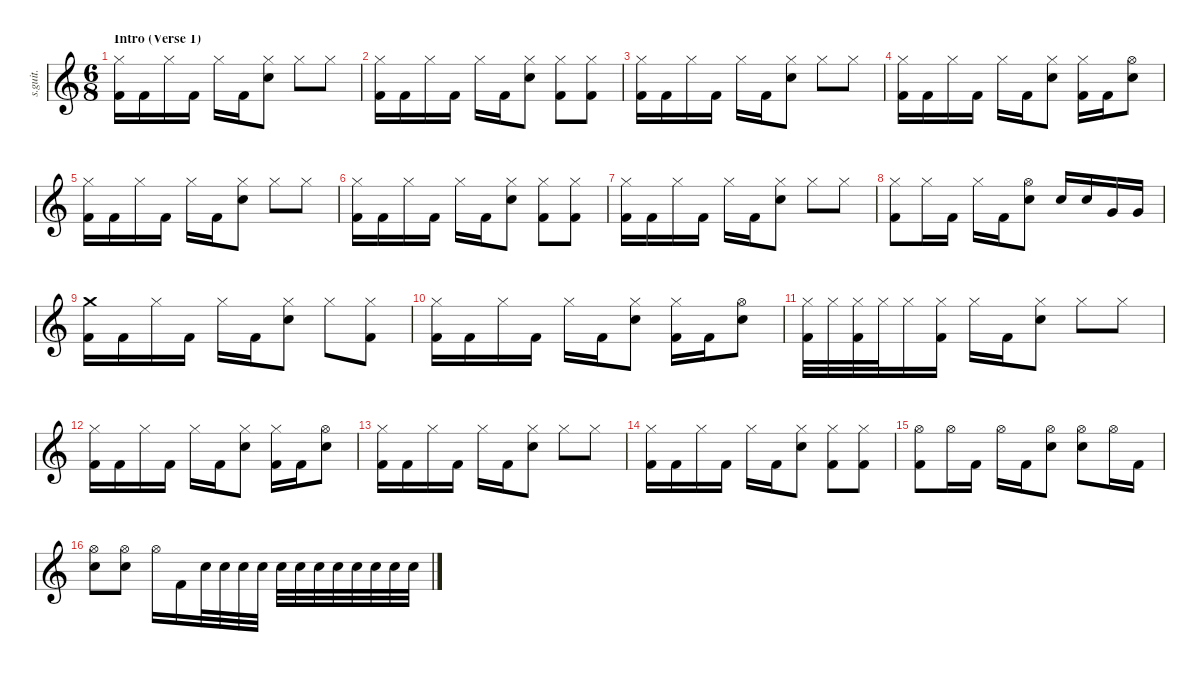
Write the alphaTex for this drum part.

\defaultSystemsLayout 4
\hideDynamics
\bracketExtendMode nobrackets
\track ("Shannon (Drums)" "s.guit.") {instrument percussion}
\staff {score}
\articulation defaults
\ts (6 8)
\beaming (8 2 2 2 2)
\section ("" "Intro (Verse 1)")
\tempo (94 hide)
\clef g2
\ks c
("Hi-Hat (closed)" "Kick (hit) 2").16{lyrics (0 "") lyrics (1 "") lyrics (2 "") lyrics (3 "") lyrics (4 "") dy f} "Kick (hit) 2".16{lyrics (0 "") lyrics (1 "") lyrics (2 "") lyrics (3 "") lyrics (4 "")} "Hi-Hat (closed)".16{lyrics (0 "") lyrics (1 "") lyrics (2 "") lyrics (3 "") lyrics (4 "")} "Kick (hit) 2".16{lyrics (0 "") lyrics (1 "") lyrics (2 "") lyrics (3 "") lyrics (4 "")} "Hi-Hat (closed)".16{lyrics (0 "") lyrics (1 "") lyrics (2 "") lyrics (3 "") lyrics (4 "")} "Kick (hit) 2".16{lyrics (0 "") lyrics (1 "") lyrics (2 "") lyrics (3 "") lyrics (4 "")} ("Hi-Hat (closed)" "Electric Snare (hit)").8{lyrics (0 "") lyrics (1 "") lyrics (2 "") lyrics (3 "") lyrics (4 "")} "Hi-Hat (closed)".8{lyrics (0 "") lyrics (1 "") lyrics (2 "") lyrics (3 "") lyrics (4 "")} "Hi-Hat (closed)".8{lyrics (0 "") lyrics (1 "") lyrics (2 "") lyrics (3 "") lyrics (4 "")} |
("Hi-Hat (closed)" "Kick (hit) 2").16{lyrics (0 "") lyrics (1 "") lyrics (2 "") lyrics (3 "") lyrics (4 "")} "Kick (hit) 2".16{lyrics (0 "") lyrics (1 "") lyrics (2 "") lyrics (3 "") lyrics (4 "")} "Hi-Hat (closed)".16{lyrics (0 "") lyrics (1 "") lyrics (2 "") lyrics (3 "") lyrics (4 "")} "Kick (hit) 2".16{lyrics (0 "") lyrics (1 "") lyrics (2 "") lyrics (3 "") lyrics (4 "")} "Hi-Hat (closed)".16{lyrics (0 "") lyrics (1 "") lyrics (2 "") lyrics (3 "") lyrics (4 "")} "Kick (hit) 2".16{lyrics (0 "") lyrics (1 "") lyrics (2 "") lyrics (3 "") lyrics (4 "")} ("Hi-Hat (closed)" "Electric Snare (hit)").8{lyrics (0 "") lyrics (1 "") lyrics (2 "") lyrics (3 "") lyrics (4 "")} ("Hi-Hat (closed)" "Kick (hit) 2").8{lyrics (0 "") lyrics (1 "") lyrics (2 "") lyrics (3 "") lyrics (4 "")} ("Hi-Hat (closed)" "Kick (hit) 2").8{lyrics (0 "") lyrics (1 "") lyrics (2 "") lyrics (3 "") lyrics (4 "")} |
("Hi-Hat (closed)" "Kick (hit) 2").16{lyrics (0 "") lyrics (1 "") lyrics (2 "") lyrics (3 "") lyrics (4 "")} "Kick (hit) 2".16{lyrics (0 "") lyrics (1 "") lyrics (2 "") lyrics (3 "") lyrics (4 "")} "Hi-Hat (closed)".16{lyrics (0 "") lyrics (1 "") lyrics (2 "") lyrics (3 "") lyrics (4 "")} "Kick (hit) 2".16{lyrics (0 "") lyrics (1 "") lyrics (2 "") lyrics (3 "") lyrics (4 "")} "Hi-Hat (closed)".16{lyrics (0 "") lyrics (1 "") lyrics (2 "") lyrics (3 "") lyrics (4 "")} "Kick (hit) 2".16{lyrics (0 "") lyrics (1 "") lyrics (2 "") lyrics (3 "") lyrics (4 "")} ("Hi-Hat (closed)" "Electric Snare (hit)").8{lyrics (0 "") lyrics (1 "") lyrics (2 "") lyrics (3 "") lyrics (4 "")} "Hi-Hat (closed)".8{lyrics (0 "") lyrics (1 "") lyrics (2 "") lyrics (3 "") lyrics (4 "")} "Hi-Hat (closed)".8{lyrics (0 "") lyrics (1 "") lyrics (2 "") lyrics (3 "") lyrics (4 "")} |
("Hi-Hat (closed)" "Kick (hit) 2").16{lyrics (0 "") lyrics (1 "") lyrics (2 "") lyrics (3 "") lyrics (4 "")} "Kick (hit) 2".16{lyrics (0 "") lyrics (1 "") lyrics (2 "") lyrics (3 "") lyrics (4 "")} "Hi-Hat (closed)".16{lyrics (0 "") lyrics (1 "") lyrics (2 "") lyrics (3 "") lyrics (4 "")} "Kick (hit) 2".16{lyrics (0 "") lyrics (1 "") lyrics (2 "") lyrics (3 "") lyrics (4 "")} "Hi-Hat (closed)".16{lyrics (0 "") lyrics (1 "") lyrics (2 "") lyrics (3 "") lyrics (4 "")} "Kick (hit) 2".16{lyrics (0 "") lyrics (1 "") lyrics (2 "") lyrics (3 "") lyrics (4 "")} ("Hi-Hat (closed)" "Electric Snare (hit)").8{lyrics (0 "") lyrics (1 "") lyrics (2 "") lyrics (3 "") lyrics (4 "")} ("Hi-Hat (closed)" "Kick (hit) 2").16{lyrics (0 "") lyrics (1 "") lyrics (2 "") lyrics (3 "") lyrics (4 "")} "Kick (hit) 2".16{lyrics (0 "") lyrics (1 "") lyrics (2 "") lyrics (3 "") lyrics (4 "")} ("Hi-Hat (open)" "Electric Snare (hit)").8{lyrics (0 "") lyrics (1 "") lyrics (2 "") lyrics (3 "") lyrics (4 "")} |
("Hi-Hat (closed)" "Kick (hit) 2").16{lyrics (0 "") lyrics (1 "") lyrics (2 "") lyrics (3 "") lyrics (4 "")} "Kick (hit) 2".16{lyrics (0 "") lyrics (1 "") lyrics (2 "") lyrics (3 "") lyrics (4 "")} "Hi-Hat (closed)".16{lyrics (0 "") lyrics (1 "") lyrics (2 "") lyrics (3 "") lyrics (4 "")} "Kick (hit) 2".16{lyrics (0 "") lyrics (1 "") lyrics (2 "") lyrics (3 "") lyrics (4 "")} "Hi-Hat (closed)".16{lyrics (0 "") lyrics (1 "") lyrics (2 "") lyrics (3 "") lyrics (4 "")} "Kick (hit) 2".16{lyrics (0 "") lyrics (1 "") lyrics (2 "") lyrics (3 "") lyrics (4 "")} ("Hi-Hat (closed)" "Electric Snare (hit)").8{lyrics (0 "") lyrics (1 "") lyrics (2 "") lyrics (3 "") lyrics (4 "")} "Hi-Hat (closed)".8{lyrics (0 "") lyrics (1 "") lyrics (2 "") lyrics (3 "") lyrics (4 "")} "Hi-Hat (closed)".8{lyrics (0 "") lyrics (1 "") lyrics (2 "") lyrics (3 "") lyrics (4 "")} |
("Hi-Hat (closed)" "Kick (hit) 2").16{lyrics (0 "") lyrics (1 "") lyrics (2 "") lyrics (3 "") lyrics (4 "")} "Kick (hit) 2".16{lyrics (0 "") lyrics (1 "") lyrics (2 "") lyrics (3 "") lyrics (4 "")} "Hi-Hat (closed)".16{lyrics (0 "") lyrics (1 "") lyrics (2 "") lyrics (3 "") lyrics (4 "")} "Kick (hit) 2".16{lyrics (0 "") lyrics (1 "") lyrics (2 "") lyrics (3 "") lyrics (4 "")} "Hi-Hat (closed)".16{lyrics (0 "") lyrics (1 "") lyrics (2 "") lyrics (3 "") lyrics (4 "")} "Kick (hit) 2".16{lyrics (0 "") lyrics (1 "") lyrics (2 "") lyrics (3 "") lyrics (4 "")} ("Hi-Hat (closed)" "Electric Snare (hit)").8{lyrics (0 "") lyrics (1 "") lyrics (2 "") lyrics (3 "") lyrics (4 "")} ("Hi-Hat (closed)" "Kick (hit) 2").8{lyrics (0 "") lyrics (1 "") lyrics (2 "") lyrics (3 "") lyrics (4 "")} ("Hi-Hat (closed)" "Kick (hit) 2").8{lyrics (0 "") lyrics (1 "") lyrics (2 "") lyrics (3 "") lyrics (4 "")} |
("Hi-Hat (closed)" "Kick (hit) 2").16{lyrics (0 "") lyrics (1 "") lyrics (2 "") lyrics (3 "") lyrics (4 "")} "Kick (hit) 2".16{lyrics (0 "") lyrics (1 "") lyrics (2 "") lyrics (3 "") lyrics (4 "")} "Hi-Hat (closed)".16{lyrics (0 "") lyrics (1 "") lyrics (2 "") lyrics (3 "") lyrics (4 "")} "Kick (hit) 2".16{lyrics (0 "") lyrics (1 "") lyrics (2 "") lyrics (3 "") lyrics (4 "")} "Hi-Hat (closed)".16{lyrics (0 "") lyrics (1 "") lyrics (2 "") lyrics (3 "") lyrics (4 "")} "Kick (hit) 2".16{lyrics (0 "") lyrics (1 "") lyrics (2 "") lyrics (3 "") lyrics (4 "")} ("Hi-Hat (closed)" "Electric Snare (hit)").8{lyrics (0 "") lyrics (1 "") lyrics (2 "") lyrics (3 "") lyrics (4 "")} "Hi-Hat (closed)".8{lyrics (0 "") lyrics (1 "") lyrics (2 "") lyrics (3 "") lyrics (4 "")} "Hi-Hat (closed)".8{lyrics (0 "") lyrics (1 "") lyrics (2 "") lyrics (3 "") lyrics (4 "")} |
("Hi-Hat (closed)" "Kick (hit) 2").8{lyrics (0 "") lyrics (1 "") lyrics (2 "") lyrics (3 "") lyrics (4 "")} "Hi-Hat (closed)".16{lyrics (0 "") lyrics (1 "") lyrics (2 "") lyrics (3 "") lyrics (4 "")} "Kick (hit) 2".16{lyrics (0 "") lyrics (1 "") lyrics (2 "") lyrics (3 "") lyrics (4 "")} "Hi-Hat (closed)".16{lyrics (0 "") lyrics (1 "") lyrics (2 "") lyrics (3 "") lyrics (4 "")} "Kick (hit) 2".16{lyrics (0 "") lyrics (1 "") lyrics (2 "") lyrics (3 "") lyrics (4 "")} ("Hi-Hat (open)" "Electric Snare (hit)").8{lyrics (0 "") lyrics (1 "") lyrics (2 "") lyrics (3 "") lyrics (4 "")} "Electric Snare (hit)".16{lyrics (0 "") lyrics (1 "") lyrics (2 "") lyrics (3 "") lyrics (4 "")} "Electric Snare (hit)".16{lyrics (0 "") lyrics (1 "") lyrics (2 "") lyrics (3 "") lyrics (4 "")} "Very Low Tom (hit)".16{lyrics (0 "") lyrics (1 "") lyrics (2 "") lyrics (3 "") lyrics (4 "")} "Very Low Tom (hit)".16{lyrics (0 "") lyrics (1 "") lyrics (2 "") lyrics (3 "") lyrics (4 "")} |
("Crash medium (hit)" "Kick (hit) 2").16{lyrics (0 "") lyrics (1 "") lyrics (2 "") lyrics (3 "") lyrics (4 "")} "Kick (hit) 2".16{lyrics (0 "") lyrics (1 "") lyrics (2 "") lyrics (3 "") lyrics (4 "")} "Hi-Hat (closed)".16{lyrics (0 "") lyrics (1 "") lyrics (2 "") lyrics (3 "") lyrics (4 "")} "Kick (hit) 2".16{lyrics (0 "") lyrics (1 "") lyrics (2 "") lyrics (3 "") lyrics (4 "")} "Hi-Hat (closed)".16{lyrics (0 "") lyrics (1 "") lyrics (2 "") lyrics (3 "") lyrics (4 "")} "Kick (hit) 2".16{lyrics (0 "") lyrics (1 "") lyrics (2 "") lyrics (3 "") lyrics (4 "")} ("Hi-Hat (closed)" "Electric Snare (hit)").8{lyrics (0 "") lyrics (1 "") lyrics (2 "") lyrics (3 "") lyrics (4 "")} "Hi-Hat (closed)".8{lyrics (0 "") lyrics (1 "") lyrics (2 "") lyrics (3 "") lyrics (4 "")} ("Hi-Hat (closed)" "Kick (hit) 2").8{lyrics (0 "") lyrics (1 "") lyrics (2 "") lyrics (3 "") lyrics (4 "")} |
("Hi-Hat (closed)" "Kick (hit) 2").16{lyrics (0 "") lyrics (1 "") lyrics (2 "") lyrics (3 "") lyrics (4 "")} "Kick (hit) 2".16{lyrics (0 "") lyrics (1 "") lyrics (2 "") lyrics (3 "") lyrics (4 "")} "Hi-Hat (closed)".16{lyrics (0 "") lyrics (1 "") lyrics (2 "") lyrics (3 "") lyrics (4 "")} "Kick (hit) 2".16{lyrics (0 "") lyrics (1 "") lyrics (2 "") lyrics (3 "") lyrics (4 "")} "Hi-Hat (closed)".16{lyrics (0 "") lyrics (1 "") lyrics (2 "") lyrics (3 "") lyrics (4 "")} "Kick (hit) 2".16{lyrics (0 "") lyrics (1 "") lyrics (2 "") lyrics (3 "") lyrics (4 "")} ("Hi-Hat (closed)" "Electric Snare (hit)").8{lyrics (0 "") lyrics (1 "") lyrics (2 "") lyrics (3 "") lyrics (4 "")} ("Hi-Hat (closed)" "Kick (hit) 2").16{lyrics (0 "") lyrics (1 "") lyrics (2 "") lyrics (3 "") lyrics (4 "")} "Kick (hit) 2".16{lyrics (0 "") lyrics (1 "") lyrics (2 "") lyrics (3 "") lyrics (4 "")} ("Hi-Hat (open)" "Electric Snare (hit)").8{lyrics (0 "") lyrics (1 "") lyrics (2 "") lyrics (3 "") lyrics (4 "")} |
("Hi-Hat (closed)" "Kick (hit) 2").32{lyrics (0 "") lyrics (1 "") lyrics (2 "") lyrics (3 "") lyrics (4 "")} "Hi-Hat (closed)".32{lyrics (0 "") lyrics (1 "") lyrics (2 "") lyrics (3 "") lyrics (4 "")} ("Hi-Hat (closed)" "Kick (hit) 2").32{lyrics (0 "") lyrics (1 "") lyrics (2 "") lyrics (3 "") lyrics (4 "")} "Hi-Hat (closed)".32{lyrics (0 "") lyrics (1 "") lyrics (2 "") lyrics (3 "") lyrics (4 "")} "Hi-Hat (closed)".16{lyrics (0 "") lyrics (1 "") lyrics (2 "") lyrics (3 "") lyrics (4 "")} ("Hi-Hat (closed)" "Kick (hit) 2").16{lyrics (0 "") lyrics (1 "") lyrics (2 "") lyrics (3 "") lyrics (4 "")} "Hi-Hat (closed)".16{lyrics (0 "") lyrics (1 "") lyrics (2 "") lyrics (3 "") lyrics (4 "")} "Kick (hit) 2".16{lyrics (0 "") lyrics (1 "") lyrics (2 "") lyrics (3 "") lyrics (4 "")} ("Hi-Hat (closed)" "Electric Snare (hit)").8{lyrics (0 "") lyrics (1 "") lyrics (2 "") lyrics (3 "") lyrics (4 "")} "Hi-Hat (closed)".8{lyrics (0 "") lyrics (1 "") lyrics (2 "") lyrics (3 "") lyrics (4 "")} "Hi-Hat (closed)".8{lyrics (0 "") lyrics (1 "") lyrics (2 "") lyrics (3 "") lyrics (4 "")} |
("Hi-Hat (closed)" "Kick (hit) 2").16{lyrics (0 "") lyrics (1 "") lyrics (2 "") lyrics (3 "") lyrics (4 "")} "Kick (hit) 2".16{lyrics (0 "") lyrics (1 "") lyrics (2 "") lyrics (3 "") lyrics (4 "")} "Hi-Hat (closed)".16{lyrics (0 "") lyrics (1 "") lyrics (2 "") lyrics (3 "") lyrics (4 "")} "Kick (hit) 2".16{lyrics (0 "") lyrics (1 "") lyrics (2 "") lyrics (3 "") lyrics (4 "")} "Hi-Hat (closed)".16{lyrics (0 "") lyrics (1 "") lyrics (2 "") lyrics (3 "") lyrics (4 "")} "Kick (hit) 2".16{lyrics (0 "") lyrics (1 "") lyrics (2 "") lyrics (3 "") lyrics (4 "")} ("Hi-Hat (closed)" "Electric Snare (hit)").8{lyrics (0 "") lyrics (1 "") lyrics (2 "") lyrics (3 "") lyrics (4 "")} ("Hi-Hat (closed)" "Kick (hit) 2").16{lyrics (0 "") lyrics (1 "") lyrics (2 "") lyrics (3 "") lyrics (4 "")} "Kick (hit) 2".16{lyrics (0 "") lyrics (1 "") lyrics (2 "") lyrics (3 "") lyrics (4 "")} ("Hi-Hat (open)" "Electric Snare (hit)").8{lyrics (0 "") lyrics (1 "") lyrics (2 "") lyrics (3 "") lyrics (4 "")} |
("Hi-Hat (closed)" "Kick (hit) 2").16{lyrics (0 "") lyrics (1 "") lyrics (2 "") lyrics (3 "") lyrics (4 "")} "Kick (hit) 2".16{lyrics (0 "") lyrics (1 "") lyrics (2 "") lyrics (3 "") lyrics (4 "")} "Hi-Hat (closed)".16{lyrics (0 "") lyrics (1 "") lyrics (2 "") lyrics (3 "") lyrics (4 "")} "Kick (hit) 2".16{lyrics (0 "") lyrics (1 "") lyrics (2 "") lyrics (3 "") lyrics (4 "")} "Hi-Hat (closed)".16{lyrics (0 "") lyrics (1 "") lyrics (2 "") lyrics (3 "") lyrics (4 "")} "Kick (hit) 2".16{lyrics (0 "") lyrics (1 "") lyrics (2 "") lyrics (3 "") lyrics (4 "")} ("Hi-Hat (closed)" "Electric Snare (hit)").8{lyrics (0 "") lyrics (1 "") lyrics (2 "") lyrics (3 "") lyrics (4 "")} "Hi-Hat (closed)".8{lyrics (0 "") lyrics (1 "") lyrics (2 "") lyrics (3 "") lyrics (4 "")} "Hi-Hat (closed)".8{lyrics (0 "") lyrics (1 "") lyrics (2 "") lyrics (3 "") lyrics (4 "")} |
("Hi-Hat (closed)" "Kick (hit) 2").16{lyrics (0 "") lyrics (1 "") lyrics (2 "") lyrics (3 "") lyrics (4 "")} "Kick (hit) 2".16{lyrics (0 "") lyrics (1 "") lyrics (2 "") lyrics (3 "") lyrics (4 "")} "Hi-Hat (closed)".16{lyrics (0 "") lyrics (1 "") lyrics (2 "") lyrics (3 "") lyrics (4 "")} "Kick (hit) 2".16{lyrics (0 "") lyrics (1 "") lyrics (2 "") lyrics (3 "") lyrics (4 "")} "Hi-Hat (closed)".16{lyrics (0 "") lyrics (1 "") lyrics (2 "") lyrics (3 "") lyrics (4 "")} "Kick (hit) 2".16{lyrics (0 "") lyrics (1 "") lyrics (2 "") lyrics (3 "") lyrics (4 "")} ("Hi-Hat (closed)" "Electric Snare (hit)").8{lyrics (0 "") lyrics (1 "") lyrics (2 "") lyrics (3 "") lyrics (4 "")} ("Hi-Hat (closed)" "Kick (hit) 2").8{lyrics (0 "") lyrics (1 "") lyrics (2 "") lyrics (3 "") lyrics (4 "")} ("Hi-Hat (closed)" "Kick (hit) 2").8{lyrics (0 "") lyrics (1 "") lyrics (2 "") lyrics (3 "") lyrics (4 "")} |
("Hi-Hat (open)" "Kick (hit) 2").8{lyrics (0 "") lyrics (1 "") lyrics (2 "") lyrics (3 "") lyrics (4 "")} "Hi-Hat (open)".16{lyrics (0 "") lyrics (1 "") lyrics (2 "") lyrics (3 "") lyrics (4 "")} "Kick (hit) 2".16{lyrics (0 "") lyrics (1 "") lyrics (2 "") lyrics (3 "") lyrics (4 "")} "Hi-Hat (open)".16{lyrics (0 "") lyrics (1 "") lyrics (2 "") lyrics (3 "") lyrics (4 "")} "Kick (hit) 2".16{lyrics (0 "") lyrics (1 "") lyrics (2 "") lyrics (3 "") lyrics (4 "")} ("Hi-Hat (open)" "Electric Snare (hit)").8{lyrics (0 "") lyrics (1 "") lyrics (2 "") lyrics (3 "") lyrics (4 "")} ("Hi-Hat (open)" "Electric Snare (hit)").8{lyrics (0 "") lyrics (1 "") lyrics (2 "") lyrics (3 "") lyrics (4 "")} "Hi-Hat (open)".16{lyrics (0 "") lyrics (1 "") lyrics (2 "") lyrics (3 "") lyrics (4 "")} "Kick (hit) 2".16{lyrics (0 "") lyrics (1 "") lyrics (2 "") lyrics (3 "") lyrics (4 "")} |
("Hi-Hat (open)" "Electric Snare (hit)").8{lyrics (0 "") lyrics (1 "") lyrics (2 "") lyrics (3 "") lyrics (4 "")} ("Hi-Hat (open)" "Electric Snare (hit)").8{lyrics (0 "") lyrics (1 "") lyrics (2 "") lyrics (3 "") lyrics (4 "")} "Hi-Hat (open)".16{lyrics (0 "") lyrics (1 "") lyrics (2 "") lyrics (3 "") lyrics (4 "")} "Kick (hit) 2".16{lyrics (0 "") lyrics (1 "") lyrics (2 "") lyrics (3 "") lyrics (4 "")} "Electric Snare (hit)".32{lyrics (0 "") lyrics (1 "") lyrics (2 "") lyrics (3 "") lyrics (4 "")} "Electric Snare (hit)".32{lyrics (0 "") lyrics (1 "") lyrics (2 "") lyrics (3 "") lyrics (4 "")} "Electric Snare (hit)".32{lyrics (0 "") lyrics (1 "") lyrics (2 "") lyrics (3 "") lyrics (4 "")} "Electric Snare (hit)".32{lyrics (0 "") lyrics (1 "") lyrics (2 "") lyrics (3 "") lyrics (4 "")} "Electric Snare (hit)".32{lyrics (0 "") lyrics (1 "") lyrics (2 "") lyrics (3 "") lyrics (4 "")} "Electric Snare (hit)".32{lyrics (0 "") lyrics (1 "") lyrics (2 "") lyrics (3 "") lyrics (4 "")} "Electric Snare (hit)".32{lyrics (0 "") lyrics (1 "") lyrics (2 "") lyrics (3 "") lyrics (4 "")} "Electric Snare (hit)".32{lyrics (0 "") lyrics (1 "") lyrics (2 "") lyrics (3 "") lyrics (4 "")} "Electric Snare (hit)".32{lyrics (0 "") lyrics (1 "") lyrics (2 "") lyrics (3 "") lyrics (4 "")} "Electric Snare (hit)".32{lyrics (0 "") lyrics (1 "") lyrics (2 "") lyrics (3 "") lyrics (4 "")} "Electric Snare (hit)".32{lyrics (0 "") lyrics (1 "") lyrics (2 "") lyrics (3 "") lyrics (4 "")} "Electric Snare (hit)".32{lyrics (0 "") lyrics (1 "") lyrics (2 "") lyrics (3 "") lyrics (4 "")}
